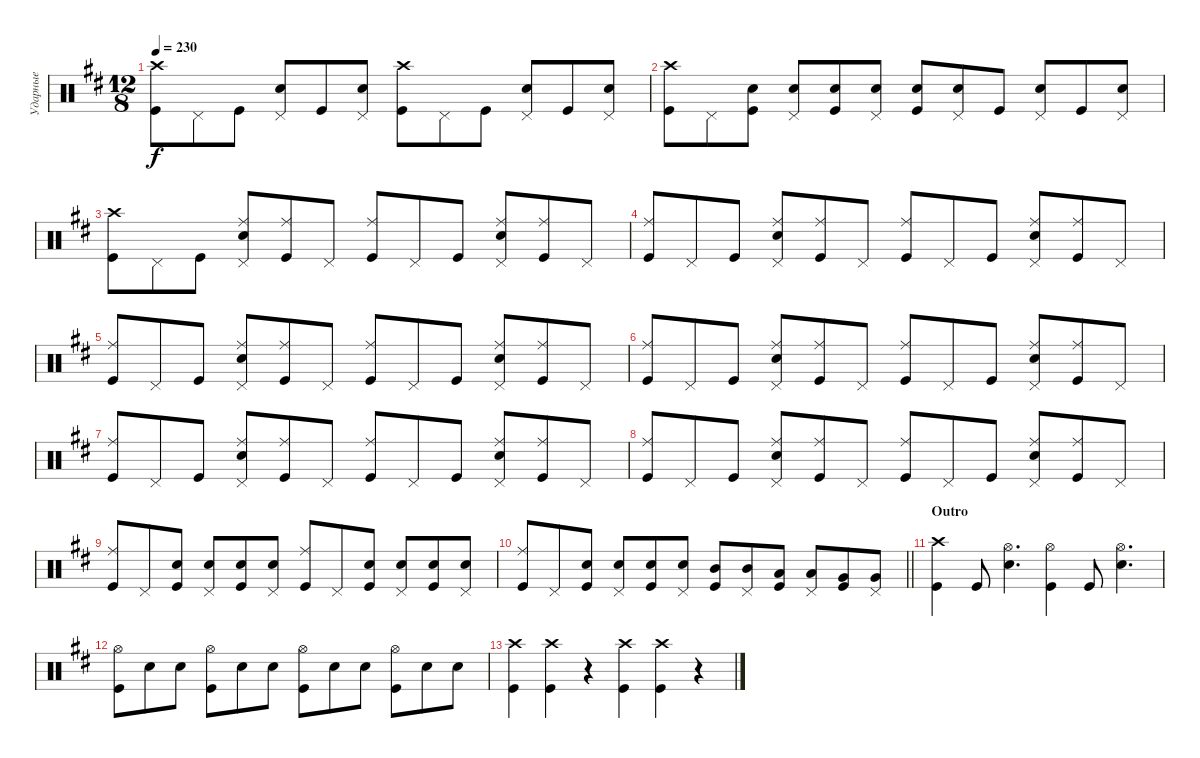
\track ("Ударные" "Ударные") {instrument percussion}
\staff {score}
\articulation defaults
\ts (12 8)
\tempo 230
\clef neutral
\ks bminor
("Kick (hit)" "Crash high (hit)").8{dy f} "Pedal Hi-Hat (hit)".8 "Kick (hit)".8 ("Snare (hit) 2" "Pedal Hi-Hat (hit)").8 "Kick (hit)".8 ("Pedal Hi-Hat (hit)" "Snare (hit) 2").8 ("Kick (hit)" "Crash high (hit)").8 "Pedal Hi-Hat (hit)".8 "Kick (hit)".8 ("Snare (hit) 2" "Pedal Hi-Hat (hit)").8 "Kick (hit)".8 ("Snare (hit) 2" "Pedal Hi-Hat (hit)").8 |
("Kick (hit)" "Crash high (hit)").8 "Pedal Hi-Hat (hit)".8 ("Snare (hit) 2" "Kick (hit)").8 ("Snare (hit) 2" "Pedal Hi-Hat (hit)").8 ("Snare (hit) 2" "Kick (hit)").8 ("Snare (hit) 2" "Pedal Hi-Hat (hit)").8 ("Snare (hit) 2" "Kick (hit)").8 ("Snare (hit) 2" "Pedal Hi-Hat (hit)").8 "Kick (hit)".8 ("Snare (hit) 2" "Pedal Hi-Hat (hit)").8 "Kick (hit)".8 ("Snare (hit) 2" "Pedal Hi-Hat (hit)").8 |
("Kick (hit)" "Crash high (hit)").8 "Pedal Hi-Hat (hit)".8 "Kick (hit)".8 ("Snare (hit) 2" "Ride (middle)" "Pedal Hi-Hat (hit)").8 ("Ride (middle)" "Kick (hit)").8 "Pedal Hi-Hat (hit)".8 ("Kick (hit)" "Ride (middle)").8 "Pedal Hi-Hat (hit)".8 "Kick (hit)".8 ("Snare (hit) 2" "Ride (middle)" "Pedal Hi-Hat (hit)").8 ("Kick (hit)" "Ride (middle)").8 "Pedal Hi-Hat (hit)".8 |
("Kick (hit)" "Ride (middle)").8 "Pedal Hi-Hat (hit)".8 "Kick (hit)".8 ("Snare (hit) 2" "Ride (middle)" "Pedal Hi-Hat (hit)").8 ("Kick (hit)" "Ride (middle)").8 "Pedal Hi-Hat (hit)".8 ("Kick (hit)" "Ride (middle)").8 "Pedal Hi-Hat (hit)".8 "Kick (hit)".8 ("Snare (hit) 2" "Ride (middle)" "Pedal Hi-Hat (hit)").8 ("Kick (hit)" "Ride (middle)").8 "Pedal Hi-Hat (hit)".8 |
("Kick (hit)" "Ride (middle)").8 "Pedal Hi-Hat (hit)".8 "Kick (hit)".8 ("Snare (hit) 2" "Ride (middle)" "Pedal Hi-Hat (hit)").8 ("Kick (hit)" "Ride (middle)").8 "Pedal Hi-Hat (hit)".8 ("Kick (hit)" "Ride (middle)").8 "Pedal Hi-Hat (hit)".8 "Kick (hit)".8 ("Snare (hit) 2" "Ride (middle)" "Pedal Hi-Hat (hit)").8 ("Kick (hit)" "Ride (middle)").8 "Pedal Hi-Hat (hit)".8 |
("Kick (hit)" "Ride (middle)").8 "Pedal Hi-Hat (hit)".8 "Kick (hit)".8 ("Snare (hit) 2" "Ride (middle)" "Pedal Hi-Hat (hit)").8 ("Kick (hit)" "Ride (middle)").8 "Pedal Hi-Hat (hit)".8 ("Kick (hit)" "Ride (middle)").8 "Pedal Hi-Hat (hit)".8 "Kick (hit)".8 ("Snare (hit) 2" "Ride (middle)" "Pedal Hi-Hat (hit)").8 ("Kick (hit)" "Ride (middle)").8 "Pedal Hi-Hat (hit)".8 |
("Kick (hit)" "Ride (middle)").8 "Pedal Hi-Hat (hit)".8 "Kick (hit)".8 ("Snare (hit) 2" "Ride (middle)" "Pedal Hi-Hat (hit)").8 ("Kick (hit)" "Ride (middle)").8 "Pedal Hi-Hat (hit)".8 ("Kick (hit)" "Ride (middle)").8 "Pedal Hi-Hat (hit)".8 "Kick (hit)".8 ("Snare (hit) 2" "Ride (middle)" "Pedal Hi-Hat (hit)").8 ("Kick (hit)" "Ride (middle)").8 "Pedal Hi-Hat (hit)".8 |
("Kick (hit)" "Ride (middle)").8 "Pedal Hi-Hat (hit)".8 "Kick (hit)".8 ("Snare (hit) 2" "Ride (middle)" "Pedal Hi-Hat (hit)").8 ("Kick (hit)" "Ride (middle)").8 "Pedal Hi-Hat (hit)".8 ("Kick (hit)" "Ride (middle)").8 "Pedal Hi-Hat (hit)".8 "Kick (hit)".8 ("Snare (hit) 2" "Ride (middle)" "Pedal Hi-Hat (hit)").8 ("Kick (hit)" "Ride (middle)").8 "Pedal Hi-Hat (hit)".8 |
("Kick (hit)" "Ride (middle)").8 "Pedal Hi-Hat (hit)".8 ("Snare (hit) 2" "Kick (hit)").8 ("Snare (hit) 2" "Pedal Hi-Hat (hit)").8 ("Snare (hit) 2" "Kick (hit)").8 ("Snare (hit) 2" "Pedal Hi-Hat (hit)").8 ("Kick (hit)" "Ride (middle)").8 "Pedal Hi-Hat (hit)".8 ("Snare (hit) 2" "Kick (hit)").8 ("Snare (hit) 2" "Pedal Hi-Hat (hit)").8 ("Snare (hit) 2" "Kick (hit)").8 ("Snare (hit) 2" "Pedal Hi-Hat (hit)").8 |
\barLineRight lightlight
("Kick (hit)" "Ride (middle)").8 "Pedal Hi-Hat (hit)".8 ("Snare (hit) 2" "Kick (hit)").8 ("Snare (hit) 2" "Pedal Hi-Hat (hit)").8 ("Snare (hit) 2" "Kick (hit)").8 ("Snare (hit) 2" "Pedal Hi-Hat (hit)").8 ("Mid Tom (hit)" "Kick (hit)").8 ("Mid Tom (hit)" "Pedal Hi-Hat (hit)").8 ("Low Tom (hit)" "Kick (hit)").8 ("Pedal Hi-Hat (hit)" "Low Tom (hit)").8 ("Very Low Tom (hit)" "Kick (hit)").8 ("Very Low Tom (hit)" "Pedal Hi-Hat (hit)").8 |
\section ("" "Outro")
("Kick (hit)" "Crash high (hit)").4 "Kick (hit)".8 ("Snare (hit) 2" "Hi-Hat (open)").4{d} ("Kick (hit)" "Hi-Hat (open)").4 "Kick (hit)".8 ("Snare (hit) 2" "Hi-Hat (open)").4{d} |
("Kick (hit)" "Hi-Hat (open)").8 "Snare (hit) 2".8 "Snare (hit) 2".8 ("Kick (hit)" "Hi-Hat (open)").8 "Snare (hit) 2".8 "Snare (hit) 2".8 ("Kick (hit)" "Hi-Hat (open)").8 "Snare (hit) 2".8 "Snare (hit) 2".8 ("Kick (hit)" "Hi-Hat (open)").8 "Snare (hit) 2".8 "Snare (hit) 2".8 |
("Kick (hit)" "Crash high (hit)").4 ("Kick (hit)" "Crash high (hit)").4 r.4 ("Kick (hit)" "Crash high (hit)").4 ("Kick (hit)" "Crash high (hit)").4 r.4
